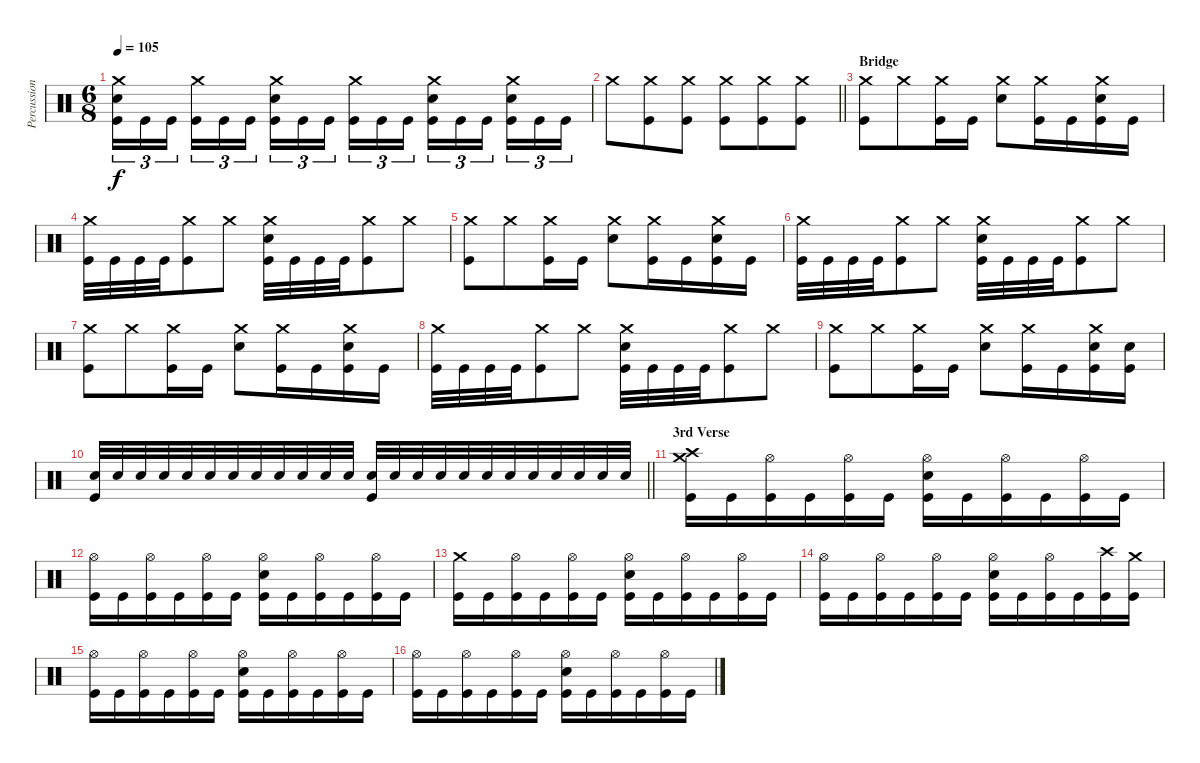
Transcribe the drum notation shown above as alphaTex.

\track ("Percussion" "Percussion") {instrument percussion}
\staff {score}
\articulation defaults
\ts (6 8)
\tempo 105
\clef neutral
\ks c
("Crash medium (hit)" "Electric Snare (hit)" "Kick (hit)").16{tu (3 2) dy f} "Kick (hit)".16{tu (3 2)} "Kick (hit)".16{tu (3 2) beam splitsecondary} ("Crash medium (hit)" "Kick (hit)").16{tu (3 2)} "Kick (hit)".16{tu (3 2)} "Kick (hit)".16{tu (3 2) beam splitsecondary} ("Crash medium (hit)" "Electric Snare (hit)" "Kick (hit)").16{tu (3 2)} "Kick (hit)".16{tu (3 2)} "Kick (hit)".16{tu (3 2)} ("Crash medium (hit)" "Kick (hit)").16{tu (3 2)} "Kick (hit)".16{tu (3 2)} "Kick (hit)".16{tu (3 2) beam splitsecondary} ("Crash medium (hit)" "Electric Snare (hit)" "Kick (hit)").16{tu (3 2)} "Kick (hit)".16{tu (3 2)} "Kick (hit)".16{tu (3 2) beam splitsecondary} ("Crash medium (hit)" "Electric Snare (hit)" "Kick (hit)").16{tu (3 2)} "Kick (hit)".16{tu (3 2)} "Kick (hit)".16{tu (3 2)} |
\barLineRight lightlight "Crash medium (hit)".8
("Crash medium (hit)" "Kick (hit)").8 ("Crash medium (hit)" "Kick (hit)").8 ("Crash medium (hit)" "Kick (hit)").8 ("Crash medium (hit)" "Kick (hit)").8 ("Crash medium (hit)" "Kick (hit)").8 |
\section ("" "Bridge")
("Crash medium (hit)" "Kick (hit)").8 "Crash medium (hit)".8 ("Crash medium (hit)" "Kick (hit)").16 "Kick (hit)".16 ("Crash medium (hit)" "Electric Snare (hit)").8 ("Crash medium (hit)" "Kick (hit)").16 "Kick (hit)".16 ("Crash medium (hit)" "Electric Snare (hit)" "Kick (hit)").16 "Kick (hit)".16 |
("Crash medium (hit)" "Kick (hit)").32 "Kick (hit)".32 "Kick (hit)".32 "Kick (hit)".32 ("Crash medium (hit)" "Kick (hit)").8 "Crash medium (hit)".8 ("Crash medium (hit)" "Electric Snare (hit)" "Kick (hit)").32 "Kick (hit)".32 "Kick (hit)".32 "Kick (hit)".32 ("Crash medium (hit)" "Kick (hit)").8 "Crash medium (hit)".8 |
("Crash medium (hit)" "Kick (hit)").8 "Crash medium (hit)".8 ("Crash medium (hit)" "Kick (hit)").16 "Kick (hit)".16 ("Crash medium (hit)" "Electric Snare (hit)").8 ("Crash medium (hit)" "Kick (hit)").16 "Kick (hit)".16 ("Crash medium (hit)" "Electric Snare (hit)" "Kick (hit)").16 "Kick (hit)".16 |
("Crash medium (hit)" "Kick (hit)").32 "Kick (hit)".32 "Kick (hit)".32 "Kick (hit)".32 ("Crash medium (hit)" "Kick (hit)").8 "Crash medium (hit)".8 ("Crash medium (hit)" "Electric Snare (hit)" "Kick (hit)").32 "Kick (hit)".32 "Kick (hit)".32 "Kick (hit)".32 ("Crash medium (hit)" "Kick (hit)").8 "Crash medium (hit)".8 |
("Crash medium (hit)" "Kick (hit)").8 "Crash medium (hit)".8 ("Crash medium (hit)" "Kick (hit)").16 "Kick (hit)".16 ("Crash medium (hit)" "Electric Snare (hit)").8 ("Crash medium (hit)" "Kick (hit)").16 "Kick (hit)".16 ("Crash medium (hit)" "Electric Snare (hit)" "Kick (hit)").16 "Kick (hit)".16 |
("Crash medium (hit)" "Kick (hit)").32 "Kick (hit)".32 "Kick (hit)".32 "Kick (hit)".32 ("Crash medium (hit)" "Kick (hit)").8 "Crash medium (hit)".8 ("Crash medium (hit)" "Electric Snare (hit)" "Kick (hit)").32 "Kick (hit)".32 "Kick (hit)".32 "Kick (hit)".32 ("Crash medium (hit)" "Kick (hit)").8 "Crash medium (hit)".8 |
("Crash medium (hit)" "Kick (hit)").8 "Crash medium (hit)".8 ("Crash medium (hit)" "Kick (hit)").16 "Kick (hit)".16 ("Crash medium (hit)" "Electric Snare (hit)").8 ("Crash medium (hit)" "Kick (hit)").16 "Kick (hit)".16 ("Crash medium (hit)" "Electric Snare (hit)" "Kick (hit)").16 ("Electric Snare (hit)" "Kick (hit)").16 |
\barLineRight lightlight
("Electric Snare (hit)" "Kick (hit)").32 "Electric Snare (hit)".32 "Electric Snare (hit)".32 "Electric Snare (hit)".32 "Electric Snare (hit)".32 "Electric Snare (hit)".32 "Electric Snare (hit)".32 "Electric Snare (hit)".32 "Electric Snare (hit)".32 "Electric Snare (hit)".32 "Electric Snare (hit)".32 "Electric Snare (hit)".32 ("Electric Snare (hit)" "Kick (hit)").32 "Electric Snare (hit)".32 "Electric Snare (hit)".32 "Electric Snare (hit)".32 "Electric Snare (hit)".32 "Electric Snare (hit)".32 "Electric Snare (hit)".32 "Electric Snare (hit)".32 "Electric Snare (hit)".32 "Electric Snare (hit)".32 "Electric Snare (hit)".32 "Electric Snare (hit)".32 |
\section ("" "3rd Verse")
("Crash medium (hit)" "Crash high (hit)" "Kick (hit)").16 "Kick (hit)".16 ("Hi-Hat (open)" "Kick (hit)").16 "Kick (hit)".16 ("Hi-Hat (open)" "Kick (hit)").16 "Kick (hit)".16 ("Hi-Hat (open)" "Electric Snare (hit)" "Kick (hit)").16 "Kick (hit)".16 ("Hi-Hat (open)" "Kick (hit)").16 "Kick (hit)".16 ("Hi-Hat (open)" "Kick (hit)").16 "Kick (hit)".16 |
("Hi-Hat (open)" "Kick (hit)").16 "Kick (hit)".16 ("Hi-Hat (open)" "Kick (hit)").16 "Kick (hit)".16 ("Hi-Hat (open)" "Kick (hit)").16 "Kick (hit)".16 ("Hi-Hat (open)" "Electric Snare (hit)" "Kick (hit)").16 "Kick (hit)".16 ("Hi-Hat (open)" "Kick (hit)").16 "Kick (hit)".16 ("Hi-Hat (open)" "Kick (hit)").16 "Kick (hit)".16 |
("Crash medium (hit)" "Kick (hit)").16 "Kick (hit)".16 ("Hi-Hat (open)" "Kick (hit)").16 "Kick (hit)".16 ("Hi-Hat (open)" "Kick (hit)").16 "Kick (hit)".16 ("Hi-Hat (open)" "Electric Snare (hit)" "Kick (hit)").16 "Kick (hit)".16 ("Hi-Hat (open)" "Kick (hit)").16 "Kick (hit)".16 ("Hi-Hat (open)" "Kick (hit)").16 "Kick (hit)".16 |
("Hi-Hat (open)" "Kick (hit)").16 "Kick (hit)".16 ("Hi-Hat (open)" "Kick (hit)").16 "Kick (hit)".16 ("Hi-Hat (open)" "Kick (hit)").16 "Kick (hit)".16 ("Hi-Hat (open)" "Electric Snare (hit)" "Kick (hit)").16 "Kick (hit)".16 ("Hi-Hat (open)" "Kick (hit)").16 "Kick (hit)".16 ("Crash high (hit)" "Kick (hit)").16 ("Crash medium (hit)" "Kick (hit)").16 |
("Hi-Hat (open)" "Kick (hit)").16 "Kick (hit)".16 ("Hi-Hat (open)" "Kick (hit)").16 "Kick (hit)".16 ("Hi-Hat (open)" "Kick (hit)").16 "Kick (hit)".16 ("Hi-Hat (open)" "Electric Snare (hit)" "Kick (hit)").16 "Kick (hit)".16 ("Hi-Hat (open)" "Kick (hit)").16 "Kick (hit)".16 ("Hi-Hat (open)" "Kick (hit)").16 "Kick (hit)".16 |
("Hi-Hat (open)" "Kick (hit)").16 "Kick (hit)".16 ("Hi-Hat (open)" "Kick (hit)").16 "Kick (hit)".16 ("Hi-Hat (open)" "Kick (hit)").16 "Kick (hit)".16 ("Hi-Hat (open)" "Electric Snare (hit)" "Kick (hit)").16 "Kick (hit)".16 ("Hi-Hat (open)" "Kick (hit)").16 "Kick (hit)".16 ("Hi-Hat (open)" "Kick (hit)").16 "Kick (hit)".16
